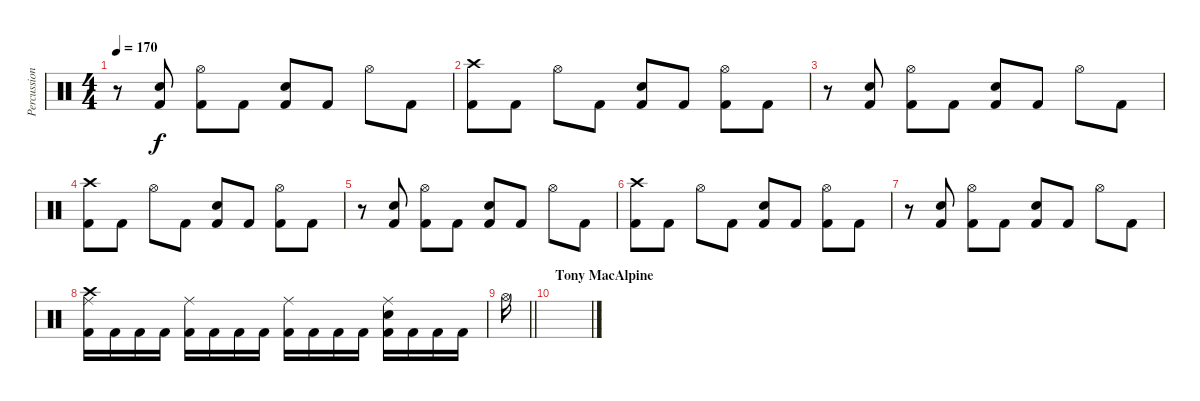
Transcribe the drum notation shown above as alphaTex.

\track ("Percussion" "Percussion") {instrument percussion}
\staff {score}
\articulation defaults
\ts (4 4)
\tempo 170
\clef neutral
\ks c
r.8{dy f} ("Snare (hit) 2" "Kick (hit) 2").8 ("Hi-Hat (open)" "Kick (hit) 2").8 "Kick (hit) 2".8 ("Snare (hit) 2" "Kick (hit) 2").8 "Kick (hit) 2".8 "Hi-Hat (open)".8 "Kick (hit) 2".8 |
("Crash high (hit)" "Kick (hit) 2").8 "Kick (hit) 2".8 "Hi-Hat (open)".8 "Kick (hit) 2".8 ("Snare (hit) 2" "Kick (hit) 2").8 "Kick (hit) 2".8 ("Hi-Hat (open)" "Kick (hit) 2").8 "Kick (hit) 2".8 |
r.8 ("Snare (hit) 2" "Kick (hit) 2").8 ("Hi-Hat (open)" "Kick (hit) 2").8 "Kick (hit) 2".8 ("Snare (hit) 2" "Kick (hit) 2").8 "Kick (hit) 2".8 "Hi-Hat (open)".8 "Kick (hit) 2".8 |
("Crash high (hit)" "Kick (hit) 2").8 "Kick (hit) 2".8 "Hi-Hat (open)".8 "Kick (hit) 2".8 ("Snare (hit) 2" "Kick (hit) 2").8 "Kick (hit) 2".8 ("Hi-Hat (open)" "Kick (hit) 2").8 "Kick (hit) 2".8 |
r.8 ("Snare (hit) 2" "Kick (hit) 2").8 ("Hi-Hat (open)" "Kick (hit) 2").8 "Kick (hit) 2".8 ("Snare (hit) 2" "Kick (hit) 2").8 "Kick (hit) 2".8 "Hi-Hat (open)".8 "Kick (hit) 2".8 |
("Crash high (hit)" "Kick (hit) 2").8 "Kick (hit) 2".8 "Hi-Hat (open)".8 "Kick (hit) 2".8 ("Snare (hit) 2" "Kick (hit) 2").8 "Kick (hit) 2".8 ("Hi-Hat (open)" "Kick (hit) 2").8 "Kick (hit) 2".8 |
r.8 ("Snare (hit) 2" "Kick (hit) 2").8 ("Hi-Hat (open)" "Kick (hit) 2").8 "Kick (hit) 2".8 ("Snare (hit) 2" "Kick (hit) 2").8 "Kick (hit) 2".8 "Hi-Hat (open)".8 "Kick (hit) 2".8 |
("Crash high (hit)" "Ride (middle)" "Kick (hit) 2").16 "Kick (hit) 2".16 "Kick (hit) 2".16 "Kick (hit) 2".16 ("Ride (middle)" "Kick (hit) 2").16 "Kick (hit) 2".16 "Kick (hit) 2".16 "Kick (hit) 2".16 ("Ride (middle)" "Kick (hit) 2").16 "Kick (hit) 2".16 "Kick (hit) 2".16 "Kick (hit) 2".16 ("Ride (middle)" "Snare (hit) 2" "Kick (hit) 2").16 "Kick (hit) 2".16 "Kick (hit) 2".16 "Kick (hit) 2".16 |
\barLineRight lightlight "Hi-Hat (open)".16
|
\section ("" "Tony MacAlpine")
